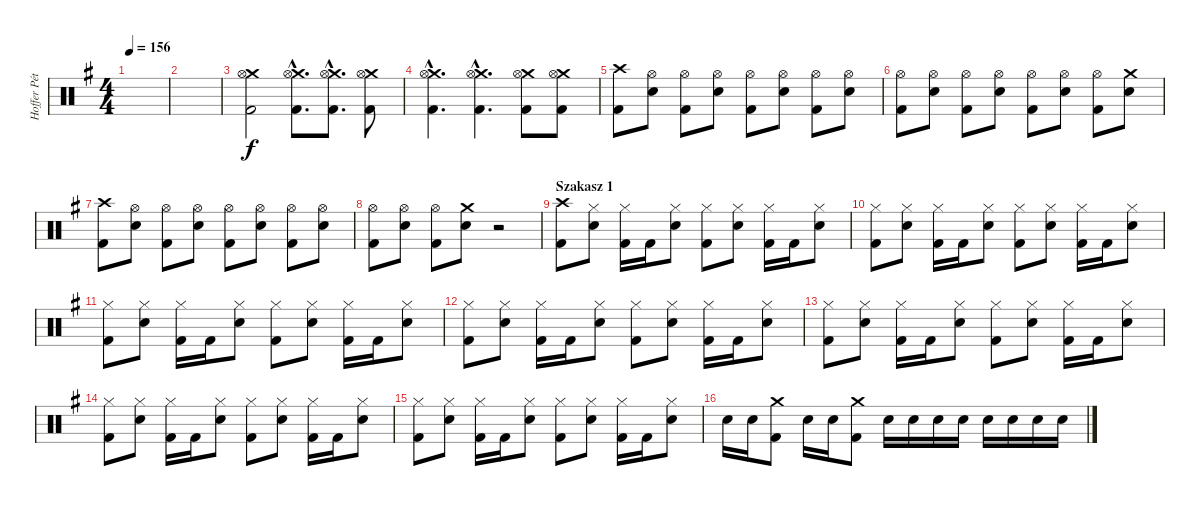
\track ("Hoffer Péter" "Hoffer Pét") {instrument percussion}
\staff {score}
\articulation defaults
\ts (4 4)
\tempo 156
\clef neutral
\ks eminor
|
|
("Crash medium (hit)" "Hi-Hat (open)" "Kick (hit) 2").2 ("Crash medium (hit)"{hac} "Hi-Hat (open)"{hac} "Kick (hit) 2"{hac}).8{d} ("Crash medium (hit)"{hac} "Hi-Hat (open)"{hac} "Kick (hit) 2"{hac}).8{d} ("Crash medium (hit)" "Hi-Hat (open)" "Kick (hit) 2").8 |
("Crash medium (hit)"{hac} "Hi-Hat (open)"{hac} "Kick (hit) 2"{hac}).4{d} ("Crash medium (hit)"{hac} "Hi-Hat (open)"{hac} "Kick (hit) 2"{hac}).4{d} ("Crash medium (hit)" "Hi-Hat (open)" "Kick (hit) 2").8 ("Crash medium (hit)" "Hi-Hat (open)" "Kick (hit) 2").8 |
("Crash high (hit)" "Kick (hit) 2").8 ("Hi-Hat (open)" "Snare (hit) 2").8 ("Hi-Hat (open)" "Kick (hit) 2").8 ("Hi-Hat (open)" "Snare (hit) 2").8 ("Hi-Hat (open)" "Kick (hit) 2").8 ("Hi-Hat (open)" "Snare (hit) 2").8 ("Hi-Hat (open)" "Kick (hit) 2").8 ("Hi-Hat (open)" "Snare (hit) 2").8 |
("Hi-Hat (open)" "Kick (hit) 2").8 ("Hi-Hat (open)" "Snare (hit) 2").8 ("Hi-Hat (open)" "Kick (hit) 2").8 ("Hi-Hat (open)" "Snare (hit) 2").8 ("Hi-Hat (open)" "Kick (hit) 2").8 ("Hi-Hat (open)" "Snare (hit) 2").8 ("Hi-Hat (open)" "Kick (hit) 2").8 ("Crash medium (hit)" "Snare (hit) 2").8 |
("Crash high (hit)" "Kick (hit) 2").8 ("Hi-Hat (open)" "Snare (hit) 2").8 ("Hi-Hat (open)" "Kick (hit) 2").8 ("Hi-Hat (open)" "Snare (hit) 2").8 ("Hi-Hat (open)" "Kick (hit) 2").8 ("Hi-Hat (open)" "Snare (hit) 2").8 ("Hi-Hat (open)" "Kick (hit) 2").8 ("Hi-Hat (open)" "Snare (hit) 2").8 |
("Hi-Hat (open)" "Kick (hit) 2").8 ("Hi-Hat (open)" "Snare (hit) 2").8 ("Hi-Hat (open)" "Kick (hit) 2").8 ("Crash medium (hit)" "Snare (hit) 2").8 r.2 |
\section ("" "Szakasz 1")
("Crash high (hit)" "Kick (hit) 2").8 ("Hi-Hat (closed)" "Snare (hit) 2").8 ("Hi-Hat (closed)" "Kick (hit) 2").16 "Kick (hit) 2".16 ("Hi-Hat (closed)" "Snare (hit) 2").8 ("Hi-Hat (closed)" "Kick (hit) 2").8 ("Hi-Hat (closed)" "Snare (hit) 2").8 ("Hi-Hat (closed)" "Kick (hit) 2").16 "Kick (hit) 2".16 ("Hi-Hat (closed)" "Snare (hit) 2").8 |
("Hi-Hat (closed)" "Kick (hit) 2").8 ("Hi-Hat (closed)" "Snare (hit) 2").8 ("Hi-Hat (closed)" "Kick (hit) 2").16 "Kick (hit) 2".16 ("Hi-Hat (closed)" "Snare (hit) 2").8 ("Hi-Hat (closed)" "Kick (hit) 2").8 ("Hi-Hat (closed)" "Snare (hit) 2").8 ("Hi-Hat (closed)" "Kick (hit) 2").16 "Kick (hit) 2".16 ("Hi-Hat (closed)" "Snare (hit) 2").8 |
("Hi-Hat (closed)" "Kick (hit) 2").8 ("Hi-Hat (closed)" "Snare (hit) 2").8 ("Hi-Hat (closed)" "Kick (hit) 2").16 "Kick (hit) 2".16 ("Hi-Hat (closed)" "Snare (hit) 2").8 ("Hi-Hat (closed)" "Kick (hit) 2").8 ("Hi-Hat (closed)" "Snare (hit) 2").8 ("Hi-Hat (closed)" "Kick (hit) 2").16 "Kick (hit) 2".16 ("Hi-Hat (closed)" "Snare (hit) 2").8 |
("Hi-Hat (closed)" "Kick (hit) 2").8 ("Hi-Hat (closed)" "Snare (hit) 2").8 ("Hi-Hat (closed)" "Kick (hit) 2").16 "Kick (hit) 2".16 ("Hi-Hat (closed)" "Snare (hit) 2").8 ("Hi-Hat (closed)" "Kick (hit) 2").8 ("Hi-Hat (closed)" "Snare (hit) 2").8 ("Hi-Hat (closed)" "Kick (hit) 2").16 "Kick (hit) 2".16 ("Hi-Hat (closed)" "Snare (hit) 2").8 |
("Hi-Hat (closed)" "Kick (hit) 2").8 ("Hi-Hat (closed)" "Snare (hit) 2").8 ("Hi-Hat (closed)" "Kick (hit) 2").16 "Kick (hit) 2".16 ("Hi-Hat (closed)" "Snare (hit) 2").8 ("Hi-Hat (closed)" "Kick (hit) 2").8 ("Hi-Hat (closed)" "Snare (hit) 2").8 ("Hi-Hat (closed)" "Kick (hit) 2").16 "Kick (hit) 2".16 ("Hi-Hat (closed)" "Snare (hit) 2").8 |
("Hi-Hat (closed)" "Kick (hit) 2").8 ("Hi-Hat (closed)" "Snare (hit) 2").8 ("Hi-Hat (closed)" "Kick (hit) 2").16 "Kick (hit) 2".16 ("Hi-Hat (closed)" "Snare (hit) 2").8 ("Hi-Hat (closed)" "Kick (hit) 2").8 ("Hi-Hat (closed)" "Snare (hit) 2").8 ("Hi-Hat (closed)" "Kick (hit) 2").16 "Kick (hit) 2".16 ("Hi-Hat (closed)" "Snare (hit) 2").8 |
("Hi-Hat (closed)" "Kick (hit) 2").8 ("Hi-Hat (closed)" "Snare (hit) 2").8 ("Hi-Hat (closed)" "Kick (hit) 2").16 "Kick (hit) 2".16 ("Hi-Hat (closed)" "Snare (hit) 2").8 ("Hi-Hat (closed)" "Kick (hit) 2").8 ("Hi-Hat (closed)" "Snare (hit) 2").8 ("Hi-Hat (closed)" "Kick (hit) 2").16 "Kick (hit) 2".16 ("Hi-Hat (closed)" "Snare (hit) 2").8 |
"Snare (hit) 2".16 "Snare (hit) 2".16 ("Crash medium (hit)" "Kick (hit) 2").8 "Snare (hit) 2".16 "Snare (hit) 2".16 ("Crash medium (hit)" "Kick (hit) 2").8 "Snare (hit) 2".16 "Snare (hit) 2".16 "Snare (hit) 2".16 "Snare (hit) 2".16 "Snare (hit) 2".16 "Snare (hit) 2".16 "Snare (hit) 2".16 "Snare (hit) 2".16
